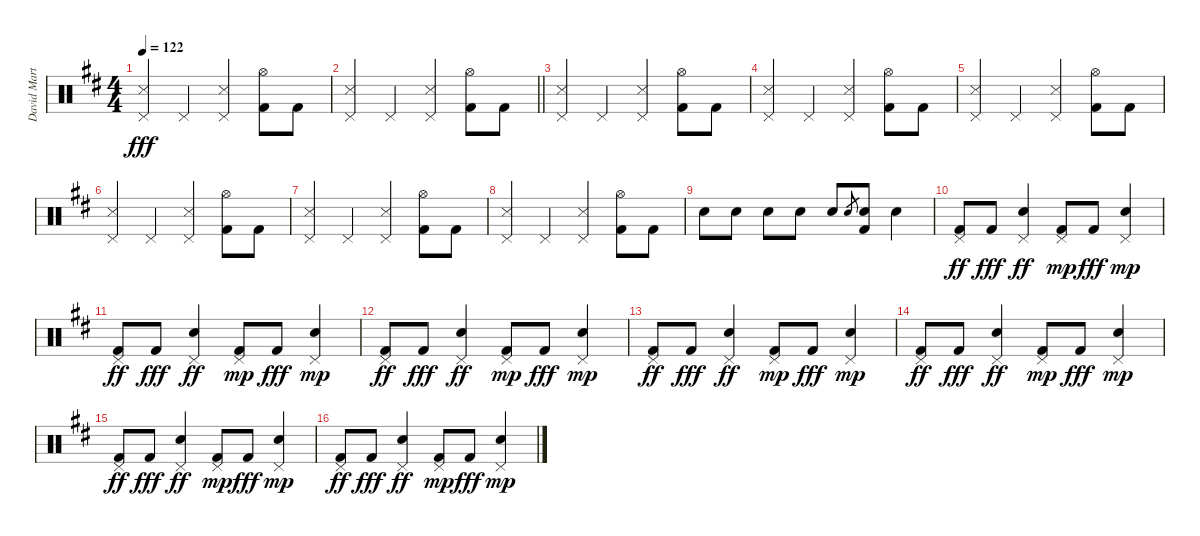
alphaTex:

\track ("David Martinez" "David Mart") {instrument percussion}
\staff {score}
\articulation defaults
\ts (4 4)
\tempo 122
\clef neutral
\ks d
("Pedal Hi-Hat (hit)" "Snare (side stick) 3").4{dy fff} "Pedal Hi-Hat (hit)".4 ("Pedal Hi-Hat (hit)" "Snare (side stick) 3").4 ("Hi-Hat (open)" "Kick (hit) 2").8 "Kick (hit) 2".8 |
\barLineRight lightlight
("Pedal Hi-Hat (hit)" "Snare (side stick) 3").4 "Pedal Hi-Hat (hit)".4 ("Pedal Hi-Hat (hit)" "Snare (side stick) 3").4 ("Hi-Hat (open)" "Kick (hit) 2").8 "Kick (hit) 2".8 |
("Pedal Hi-Hat (hit)" "Snare (side stick) 3").4 "Pedal Hi-Hat (hit)".4 ("Pedal Hi-Hat (hit)" "Snare (side stick) 3").4 ("Hi-Hat (open)" "Kick (hit) 2").8 "Kick (hit) 2".8 |
("Pedal Hi-Hat (hit)" "Snare (side stick) 3").4 "Pedal Hi-Hat (hit)".4 ("Pedal Hi-Hat (hit)" "Snare (side stick) 3").4 ("Hi-Hat (open)" "Kick (hit) 2").8 "Kick (hit) 2".8 |
("Pedal Hi-Hat (hit)" "Snare (side stick) 3").4 "Pedal Hi-Hat (hit)".4 ("Pedal Hi-Hat (hit)" "Snare (side stick) 3").4 ("Hi-Hat (open)" "Kick (hit) 2").8 "Kick (hit) 2".8 |
("Pedal Hi-Hat (hit)" "Snare (side stick) 3").4 "Pedal Hi-Hat (hit)".4 ("Pedal Hi-Hat (hit)" "Snare (side stick) 3").4 ("Hi-Hat (open)" "Kick (hit) 2").8 "Kick (hit) 2".8 |
("Pedal Hi-Hat (hit)" "Snare (side stick) 3").4 "Pedal Hi-Hat (hit)".4 ("Pedal Hi-Hat (hit)" "Snare (side stick) 3").4 ("Hi-Hat (open)" "Kick (hit) 2").8 "Kick (hit) 2".8 |
("Pedal Hi-Hat (hit)" "Snare (side stick) 3").4 "Pedal Hi-Hat (hit)".4 ("Pedal Hi-Hat (hit)" "Snare (side stick) 3").4 ("Hi-Hat (open)" "Kick (hit) 2").8 "Kick (hit) 2".8 |
"Snare (hit) 2".8 "Snare (hit) 2".8 "Snare (hit) 2".8 "Snare (hit) 2".8 "Snare (hit) 2".8 "Snare (hit) 2".8{gr} ("Snare (hit) 2" "Kick (hit) 2").8 "Snare (hit) 2".4 |
("Kick (hit) 2" "Pedal Hi-Hat (hit)").8{dy ff} "Kick (hit) 2".8{dy fff} ("Snare (hit) 2" "Pedal Hi-Hat (hit)").4{dy ff} ("Pedal Hi-Hat (hit)" "Kick (hit) 2").8{dy mp} "Kick (hit) 2".8{dy fff} ("Snare (hit) 2" "Pedal Hi-Hat (hit)").4{dy mp} |
("Kick (hit) 2" "Pedal Hi-Hat (hit)").8{dy ff} "Kick (hit) 2".8{dy fff} ("Snare (hit) 2" "Pedal Hi-Hat (hit)").4{dy ff} ("Pedal Hi-Hat (hit)" "Kick (hit) 2").8{dy mp} "Kick (hit) 2".8{dy fff} ("Snare (hit) 2" "Pedal Hi-Hat (hit)").4{dy mp} |
("Kick (hit) 2" "Pedal Hi-Hat (hit)").8{dy ff} "Kick (hit) 2".8{dy fff} ("Snare (hit) 2" "Pedal Hi-Hat (hit)").4{dy ff} ("Pedal Hi-Hat (hit)" "Kick (hit) 2").8{dy mp} "Kick (hit) 2".8{dy fff} ("Snare (hit) 2" "Pedal Hi-Hat (hit)").4{dy mp} |
("Kick (hit) 2" "Pedal Hi-Hat (hit)").8{dy ff} "Kick (hit) 2".8{dy fff} ("Snare (hit) 2" "Pedal Hi-Hat (hit)").4{dy ff} ("Pedal Hi-Hat (hit)" "Kick (hit) 2").8{dy mp} "Kick (hit) 2".8{dy fff} ("Snare (hit) 2" "Pedal Hi-Hat (hit)").4{dy mp} |
("Kick (hit) 2" "Pedal Hi-Hat (hit)").8{dy ff} "Kick (hit) 2".8{dy fff} ("Snare (hit) 2" "Pedal Hi-Hat (hit)").4{dy ff} ("Pedal Hi-Hat (hit)" "Kick (hit) 2").8{dy mp} "Kick (hit) 2".8{dy fff} ("Snare (hit) 2" "Pedal Hi-Hat (hit)").4{dy mp} |
("Kick (hit) 2" "Pedal Hi-Hat (hit)").8{dy ff} "Kick (hit) 2".8{dy fff} ("Snare (hit) 2" "Pedal Hi-Hat (hit)").4{dy ff} ("Pedal Hi-Hat (hit)" "Kick (hit) 2").8{dy mp} "Kick (hit) 2".8{dy fff} ("Snare (hit) 2" "Pedal Hi-Hat (hit)").4{dy mp} |
("Kick (hit) 2" "Pedal Hi-Hat (hit)").8{dy ff} "Kick (hit) 2".8{dy fff} ("Snare (hit) 2" "Pedal Hi-Hat (hit)").4{dy ff} ("Pedal Hi-Hat (hit)" "Kick (hit) 2").8{dy mp} "Kick (hit) 2".8{dy fff} ("Snare (hit) 2" "Pedal Hi-Hat (hit)").4{dy mp}
